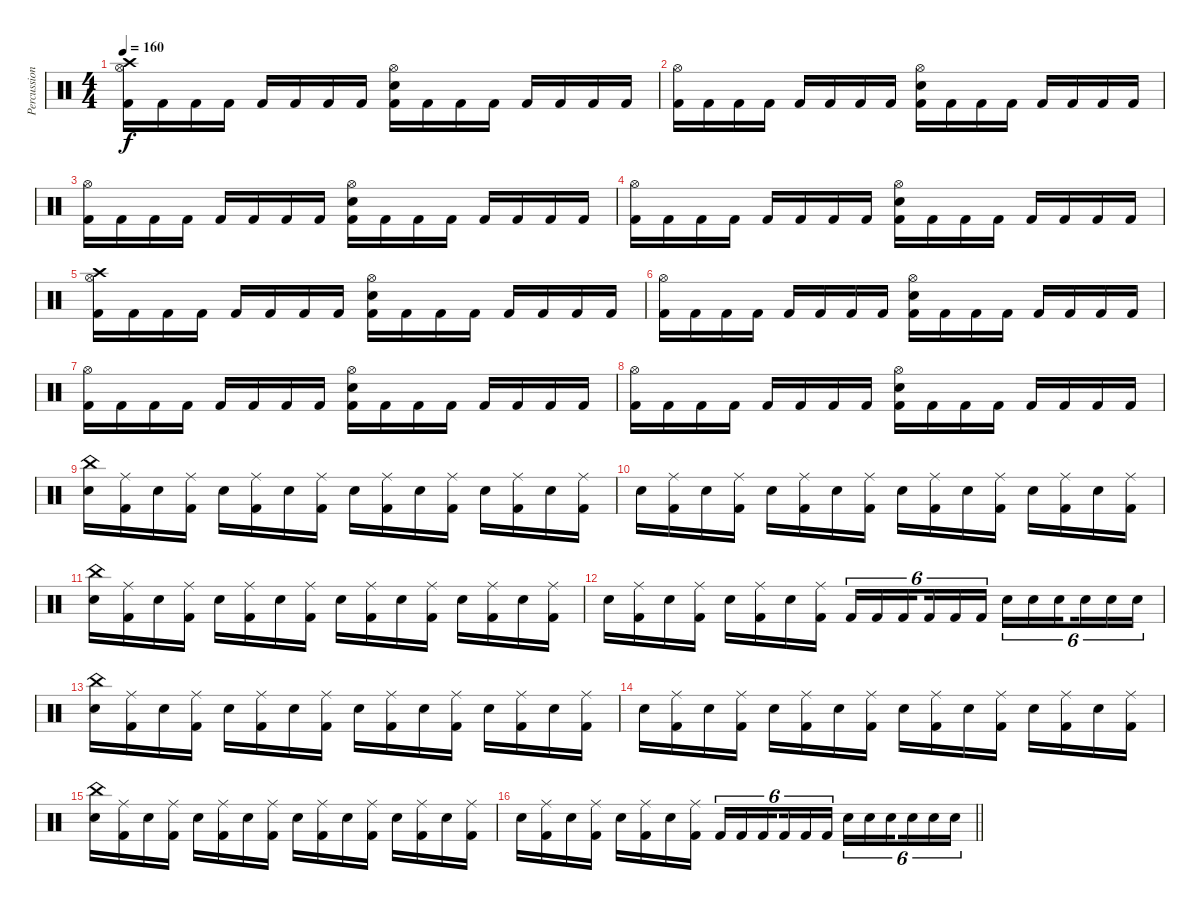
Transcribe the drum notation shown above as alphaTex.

\track ("Percussions" "Percussion") {instrument percussion}
\staff {score}
\articulation defaults
\ts (4 4)
\tempo 160
\clef neutral
\ks c
("Hi-Hat (open)" "Crash high (hit)" "Kick (hit) 2").16{dy f} "Kick (hit) 2".16 "Kick (hit) 2".16 "Kick (hit) 2".16 "Kick (hit) 2".16 "Kick (hit) 2".16 "Kick (hit) 2".16 "Kick (hit) 2".16 ("Hi-Hat (open)" "Electric Snare (hit)" "Kick (hit) 2").16 "Kick (hit) 2".16 "Kick (hit) 2".16 "Kick (hit) 2".16 "Kick (hit) 2".16 "Kick (hit) 2".16 "Kick (hit) 2".16 "Kick (hit) 2".16 |
("Hi-Hat (open)" "Kick (hit) 2").16 "Kick (hit) 2".16 "Kick (hit) 2".16 "Kick (hit) 2".16 "Kick (hit) 2".16 "Kick (hit) 2".16 "Kick (hit) 2".16 "Kick (hit) 2".16 ("Hi-Hat (open)" "Electric Snare (hit)" "Kick (hit) 2").16 "Kick (hit) 2".16 "Kick (hit) 2".16 "Kick (hit) 2".16 "Kick (hit) 2".16 "Kick (hit) 2".16 "Kick (hit) 2".16 "Kick (hit) 2".16 |
("Hi-Hat (open)" "Kick (hit) 2").16 "Kick (hit) 2".16 "Kick (hit) 2".16 "Kick (hit) 2".16 "Kick (hit) 2".16 "Kick (hit) 2".16 "Kick (hit) 2".16 "Kick (hit) 2".16 ("Hi-Hat (open)" "Electric Snare (hit)" "Kick (hit) 2").16 "Kick (hit) 2".16 "Kick (hit) 2".16 "Kick (hit) 2".16 "Kick (hit) 2".16 "Kick (hit) 2".16 "Kick (hit) 2".16 "Kick (hit) 2".16 |
("Hi-Hat (open)" "Kick (hit) 2").16 "Kick (hit) 2".16 "Kick (hit) 2".16 "Kick (hit) 2".16 "Kick (hit) 2".16 "Kick (hit) 2".16 "Kick (hit) 2".16 "Kick (hit) 2".16 ("Hi-Hat (open)" "Electric Snare (hit)" "Kick (hit) 2").16 "Kick (hit) 2".16 "Kick (hit) 2".16 "Kick (hit) 2".16 "Kick (hit) 2".16 "Kick (hit) 2".16 "Kick (hit) 2".16 "Kick (hit) 2".16 |
("Hi-Hat (open)" "Crash high (hit)" "Kick (hit) 2").16 "Kick (hit) 2".16 "Kick (hit) 2".16 "Kick (hit) 2".16 "Kick (hit) 2".16 "Kick (hit) 2".16 "Kick (hit) 2".16 "Kick (hit) 2".16 ("Hi-Hat (open)" "Electric Snare (hit)" "Kick (hit) 2").16 "Kick (hit) 2".16 "Kick (hit) 2".16 "Kick (hit) 2".16 "Kick (hit) 2".16 "Kick (hit) 2".16 "Kick (hit) 2".16 "Kick (hit) 2".16 |
("Hi-Hat (open)" "Kick (hit) 2").16 "Kick (hit) 2".16 "Kick (hit) 2".16 "Kick (hit) 2".16 "Kick (hit) 2".16 "Kick (hit) 2".16 "Kick (hit) 2".16 "Kick (hit) 2".16 ("Hi-Hat (open)" "Electric Snare (hit)" "Kick (hit) 2").16 "Kick (hit) 2".16 "Kick (hit) 2".16 "Kick (hit) 2".16 "Kick (hit) 2".16 "Kick (hit) 2".16 "Kick (hit) 2".16 "Kick (hit) 2".16 |
("Hi-Hat (open)" "Kick (hit) 2").16 "Kick (hit) 2".16 "Kick (hit) 2".16 "Kick (hit) 2".16 "Kick (hit) 2".16 "Kick (hit) 2".16 "Kick (hit) 2".16 "Kick (hit) 2".16 ("Hi-Hat (open)" "Electric Snare (hit)" "Kick (hit) 2").16 "Kick (hit) 2".16 "Kick (hit) 2".16 "Kick (hit) 2".16 "Kick (hit) 2".16 "Kick (hit) 2".16 "Kick (hit) 2".16 "Kick (hit) 2".16 |
("Hi-Hat (open)" "Kick (hit) 2").16 "Kick (hit) 2".16 "Kick (hit) 2".16 "Kick (hit) 2".16 "Kick (hit) 2".16 "Kick (hit) 2".16 "Kick (hit) 2".16 "Kick (hit) 2".16 ("Hi-Hat (open)" "Electric Snare (hit)" "Kick (hit) 2").16 "Kick (hit) 2".16 "Kick (hit) 2".16 "Kick (hit) 2".16 "Kick (hit) 2".16 "Kick (hit) 2".16 "Kick (hit) 2".16 "Kick (hit) 2".16 |
("China (hit)" "Electric Snare (hit)").16 ("Ride (middle)" "Kick (hit) 2").16 "Electric Snare (hit)".16 ("Ride (middle)" "Kick (hit) 2").16 "Electric Snare (hit)".16 ("Ride (middle)" "Kick (hit) 2").16 "Electric Snare (hit)".16 ("Ride (middle)" "Kick (hit) 2").16 "Electric Snare (hit)".16 ("Ride (middle)" "Kick (hit) 2").16 "Electric Snare (hit)".16 ("Ride (middle)" "Kick (hit) 2").16 "Electric Snare (hit)".16 ("Ride (middle)" "Kick (hit) 2").16 "Electric Snare (hit)".16 ("Ride (middle)" "Kick (hit) 2").16 |
"Electric Snare (hit)".16 ("Ride (middle)" "Kick (hit) 2").16 "Electric Snare (hit)".16 ("Ride (middle)" "Kick (hit) 2").16 "Electric Snare (hit)".16 ("Ride (middle)" "Kick (hit) 2").16 "Electric Snare (hit)".16 ("Ride (middle)" "Kick (hit) 2").16 "Electric Snare (hit)".16 ("Ride (middle)" "Kick (hit) 2").16 "Electric Snare (hit)".16 ("Ride (middle)" "Kick (hit) 2").16 "Electric Snare (hit)".16 ("Ride (middle)" "Kick (hit) 2").16 "Electric Snare (hit)".16 ("Ride (middle)" "Kick (hit) 2").16 |
("China (hit)" "Electric Snare (hit)").16 ("Ride (middle)" "Kick (hit) 2").16 "Electric Snare (hit)".16 ("Ride (middle)" "Kick (hit) 2").16 "Electric Snare (hit)".16 ("Ride (middle)" "Kick (hit) 2").16 "Electric Snare (hit)".16 ("Ride (middle)" "Kick (hit) 2").16 "Electric Snare (hit)".16 ("Ride (middle)" "Kick (hit) 2").16 "Electric Snare (hit)".16 ("Ride (middle)" "Kick (hit) 2").16 "Electric Snare (hit)".16 ("Ride (middle)" "Kick (hit) 2").16 "Electric Snare (hit)".16 ("Ride (middle)" "Kick (hit) 2").16 |
"Electric Snare (hit)".16 ("Ride (middle)" "Kick (hit) 2").16 "Electric Snare (hit)".16 ("Ride (middle)" "Kick (hit) 2").16 "Electric Snare (hit)".16 ("Ride (middle)" "Kick (hit) 2").16 "Electric Snare (hit)".16 ("Ride (middle)" "Kick (hit) 2").16 "Kick (hit) 2".16{tu (6 4)} "Kick (hit) 2".16{tu (6 4)} "Kick (hit) 2".16{tu (6 4) beam splitsecondary} "Kick (hit) 2".16{tu (6 4)} "Kick (hit) 2".16{tu (6 4)} "Kick (hit) 2".16{tu (6 4)} "Electric Snare (hit)".16{tu (6 4)} "Electric Snare (hit)".16{tu (6 4)} "Electric Snare (hit)".16{tu (6 4) beam splitsecondary} "Electric Snare (hit)".16{tu (6 4)} "Electric Snare (hit)".16{tu (6 4)} "Electric Snare (hit)".16{tu (6 4)} |
("China (hit)" "Electric Snare (hit)").16 ("Ride (middle)" "Kick (hit) 2").16 "Electric Snare (hit)".16 ("Ride (middle)" "Kick (hit) 2").16 "Electric Snare (hit)".16 ("Ride (middle)" "Kick (hit) 2").16 "Electric Snare (hit)".16 ("Ride (middle)" "Kick (hit) 2").16 "Electric Snare (hit)".16 ("Ride (middle)" "Kick (hit) 2").16 "Electric Snare (hit)".16 ("Ride (middle)" "Kick (hit) 2").16 "Electric Snare (hit)".16 ("Ride (middle)" "Kick (hit) 2").16 "Electric Snare (hit)".16 ("Ride (middle)" "Kick (hit) 2").16 |
"Electric Snare (hit)".16 ("Ride (middle)" "Kick (hit) 2").16 "Electric Snare (hit)".16 ("Ride (middle)" "Kick (hit) 2").16 "Electric Snare (hit)".16 ("Ride (middle)" "Kick (hit) 2").16 "Electric Snare (hit)".16 ("Ride (middle)" "Kick (hit) 2").16 "Electric Snare (hit)".16 ("Ride (middle)" "Kick (hit) 2").16 "Electric Snare (hit)".16 ("Ride (middle)" "Kick (hit) 2").16 "Electric Snare (hit)".16 ("Ride (middle)" "Kick (hit) 2").16 "Electric Snare (hit)".16 ("Ride (middle)" "Kick (hit) 2").16 |
("China (hit)" "Electric Snare (hit)").16 ("Ride (middle)" "Kick (hit) 2").16 "Electric Snare (hit)".16 ("Ride (middle)" "Kick (hit) 2").16 "Electric Snare (hit)".16 ("Ride (middle)" "Kick (hit) 2").16 "Electric Snare (hit)".16 ("Ride (middle)" "Kick (hit) 2").16 "Electric Snare (hit)".16 ("Ride (middle)" "Kick (hit) 2").16 "Electric Snare (hit)".16 ("Ride (middle)" "Kick (hit) 2").16 "Electric Snare (hit)".16 ("Ride (middle)" "Kick (hit) 2").16 "Electric Snare (hit)".16 ("Ride (middle)" "Kick (hit) 2").16 |
\barLineRight lightlight "Electric Snare (hit)".16
("Ride (middle)" "Kick (hit) 2").16 "Electric Snare (hit)".16 ("Ride (middle)" "Kick (hit) 2").16 "Electric Snare (hit)".16 ("Ride (middle)" "Kick (hit) 2").16 "Electric Snare (hit)".16 ("Ride (middle)" "Kick (hit) 2").16 "Kick (hit) 2".16{tu (6 4)} "Kick (hit) 2".16{tu (6 4)} "Kick (hit) 2".16{tu (6 4) beam splitsecondary} "Kick (hit) 2".16{tu (6 4)} "Kick (hit) 2".16{tu (6 4)} "Kick (hit) 2".16{tu (6 4)} "Electric Snare (hit)".16{tu (6 4)} "Electric Snare (hit)".16{tu (6 4)} "Electric Snare (hit)".16{tu (6 4) beam splitsecondary} "Electric Snare (hit)".16{tu (6 4)} "Electric Snare (hit)".16{tu (6 4)} "Electric Snare (hit)".16{tu (6 4)}
